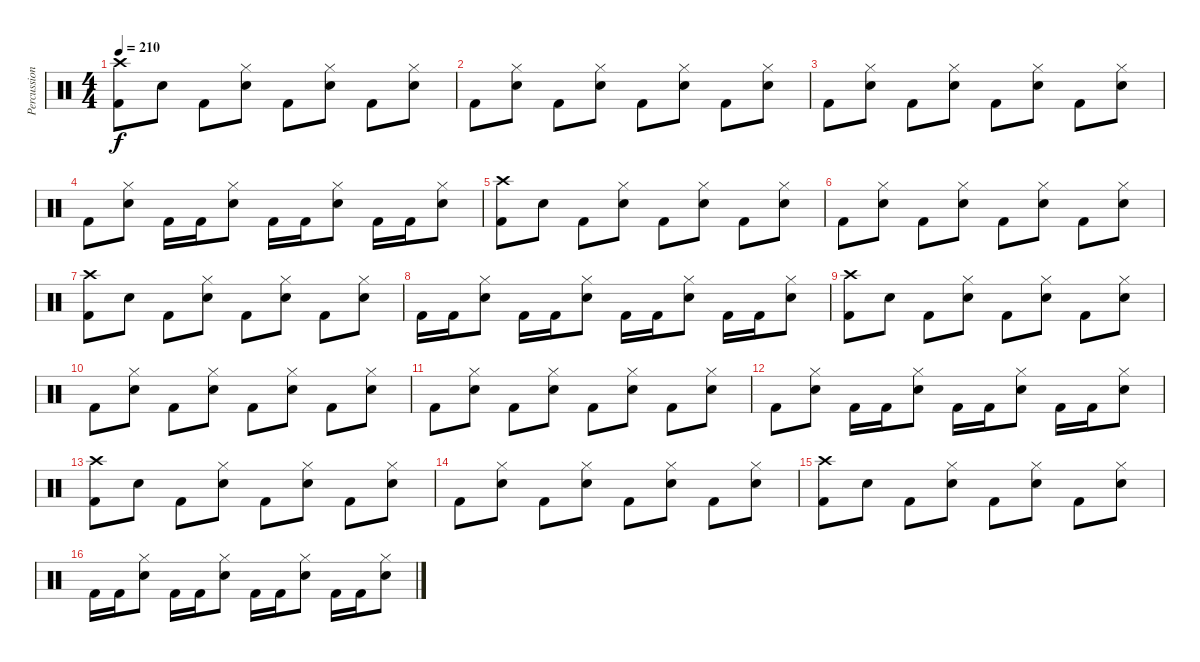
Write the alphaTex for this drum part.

\track ("Percussion" "Percussion") {instrument percussion}
\staff {score}
\articulation defaults
\ts (4 4)
\tempo 210
\clef neutral
\ks c
("Crash high (hit)" "Kick (hit) 2").8{dy f} "Electric Snare (hit)".8 "Kick (hit) 2".8 ("Hi-Hat (closed)" "Electric Snare (hit)").8 "Kick (hit) 2".8 ("Hi-Hat (closed)" "Electric Snare (hit)").8 "Kick (hit) 2".8 ("Hi-Hat (closed)" "Electric Snare (hit)").8 |
"Kick (hit) 2".8 ("Hi-Hat (closed)" "Electric Snare (hit)").8 "Kick (hit) 2".8 ("Hi-Hat (closed)" "Electric Snare (hit)").8 "Kick (hit) 2".8 ("Hi-Hat (closed)" "Electric Snare (hit)").8 "Kick (hit) 2".8 ("Hi-Hat (closed)" "Electric Snare (hit)").8 |
"Kick (hit) 2".8 ("Hi-Hat (closed)" "Electric Snare (hit)").8 "Kick (hit) 2".8 ("Hi-Hat (closed)" "Electric Snare (hit)").8 "Kick (hit) 2".8 ("Hi-Hat (closed)" "Electric Snare (hit)").8 "Kick (hit) 2".8 ("Hi-Hat (closed)" "Electric Snare (hit)").8 |
"Kick (hit) 2".8 ("Hi-Hat (closed)" "Electric Snare (hit)").8 "Kick (hit) 2".16 "Kick (hit) 2".16 ("Hi-Hat (closed)" "Electric Snare (hit)").8 "Kick (hit) 2".16 "Kick (hit) 2".16 ("Hi-Hat (closed)" "Electric Snare (hit)").8 "Kick (hit) 2".16 "Kick (hit) 2".16 ("Hi-Hat (closed)" "Electric Snare (hit)").8 |
("Crash high (hit)" "Kick (hit) 2").8 "Electric Snare (hit)".8 "Kick (hit) 2".8 ("Hi-Hat (closed)" "Electric Snare (hit)").8 "Kick (hit) 2".8 ("Hi-Hat (closed)" "Electric Snare (hit)").8 "Kick (hit) 2".8 ("Hi-Hat (closed)" "Electric Snare (hit)").8 |
"Kick (hit) 2".8 ("Hi-Hat (closed)" "Electric Snare (hit)").8 "Kick (hit) 2".8 ("Hi-Hat (closed)" "Electric Snare (hit)").8 "Kick (hit) 2".8 ("Hi-Hat (closed)" "Electric Snare (hit)").8 "Kick (hit) 2".8 ("Hi-Hat (closed)" "Electric Snare (hit)").8 |
("Crash high (hit)" "Kick (hit) 2").8 "Electric Snare (hit)".8 "Kick (hit) 2".8 ("Hi-Hat (closed)" "Electric Snare (hit)").8 "Kick (hit) 2".8 ("Hi-Hat (closed)" "Electric Snare (hit)").8 "Kick (hit) 2".8 ("Hi-Hat (closed)" "Electric Snare (hit)").8 |
"Kick (hit) 2".16 "Kick (hit) 2".16 ("Hi-Hat (closed)" "Electric Snare (hit)").8 "Kick (hit) 2".16 "Kick (hit) 2".16 ("Hi-Hat (closed)" "Electric Snare (hit)").8 "Kick (hit) 2".16 "Kick (hit) 2".16 ("Hi-Hat (closed)" "Electric Snare (hit)").8 "Kick (hit) 2".16 "Kick (hit) 2".16 ("Hi-Hat (closed)" "Electric Snare (hit)").8 |
("Crash high (hit)" "Kick (hit) 2").8 "Electric Snare (hit)".8 "Kick (hit) 2".8 ("Hi-Hat (closed)" "Electric Snare (hit)").8 "Kick (hit) 2".8 ("Hi-Hat (closed)" "Electric Snare (hit)").8 "Kick (hit) 2".8 ("Hi-Hat (closed)" "Electric Snare (hit)").8 |
"Kick (hit) 2".8 ("Hi-Hat (closed)" "Electric Snare (hit)").8 "Kick (hit) 2".8 ("Hi-Hat (closed)" "Electric Snare (hit)").8 "Kick (hit) 2".8 ("Hi-Hat (closed)" "Electric Snare (hit)").8 "Kick (hit) 2".8 ("Hi-Hat (closed)" "Electric Snare (hit)").8 |
"Kick (hit) 2".8 ("Hi-Hat (closed)" "Electric Snare (hit)").8 "Kick (hit) 2".8 ("Hi-Hat (closed)" "Electric Snare (hit)").8 "Kick (hit) 2".8 ("Hi-Hat (closed)" "Electric Snare (hit)").8 "Kick (hit) 2".8 ("Hi-Hat (closed)" "Electric Snare (hit)").8 |
"Kick (hit) 2".8 ("Hi-Hat (closed)" "Electric Snare (hit)").8 "Kick (hit) 2".16 "Kick (hit) 2".16 ("Hi-Hat (closed)" "Electric Snare (hit)").8 "Kick (hit) 2".16 "Kick (hit) 2".16 ("Hi-Hat (closed)" "Electric Snare (hit)").8 "Kick (hit) 2".16 "Kick (hit) 2".16 ("Hi-Hat (closed)" "Electric Snare (hit)").8 |
("Crash high (hit)" "Kick (hit) 2").8 "Electric Snare (hit)".8 "Kick (hit) 2".8 ("Hi-Hat (closed)" "Electric Snare (hit)").8 "Kick (hit) 2".8 ("Hi-Hat (closed)" "Electric Snare (hit)").8 "Kick (hit) 2".8 ("Hi-Hat (closed)" "Electric Snare (hit)").8 |
"Kick (hit) 2".8 ("Hi-Hat (closed)" "Electric Snare (hit)").8 "Kick (hit) 2".8 ("Hi-Hat (closed)" "Electric Snare (hit)").8 "Kick (hit) 2".8 ("Hi-Hat (closed)" "Electric Snare (hit)").8 "Kick (hit) 2".8 ("Hi-Hat (closed)" "Electric Snare (hit)").8 |
("Crash high (hit)" "Kick (hit) 2").8 "Electric Snare (hit)".8 "Kick (hit) 2".8 ("Hi-Hat (closed)" "Electric Snare (hit)").8 "Kick (hit) 2".8 ("Hi-Hat (closed)" "Electric Snare (hit)").8 "Kick (hit) 2".8 ("Hi-Hat (closed)" "Electric Snare (hit)").8 |
"Kick (hit) 2".16 "Kick (hit) 2".16 ("Hi-Hat (closed)" "Electric Snare (hit)").8 "Kick (hit) 2".16 "Kick (hit) 2".16 ("Hi-Hat (closed)" "Electric Snare (hit)").8 "Kick (hit) 2".16 "Kick (hit) 2".16 ("Hi-Hat (closed)" "Electric Snare (hit)").8 "Kick (hit) 2".16 "Kick (hit) 2".16 ("Hi-Hat (closed)" "Electric Snare (hit)").8
